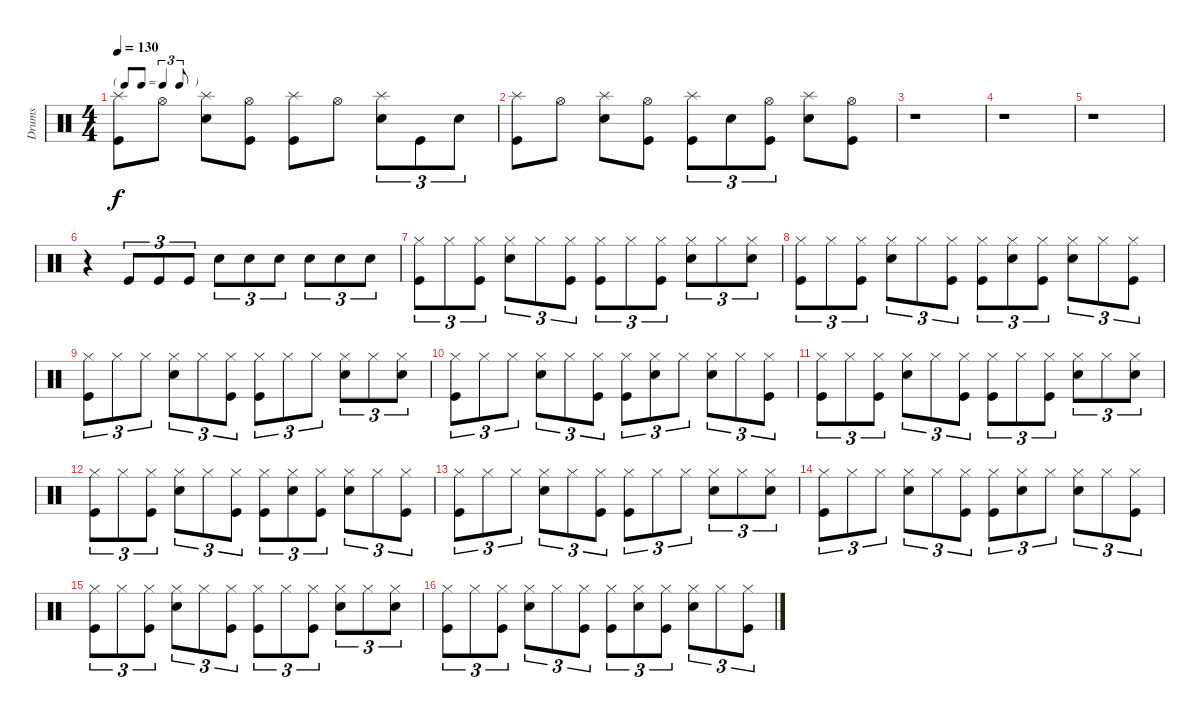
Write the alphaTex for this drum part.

\track ("Drums" "Drums") {instrument percussion}
\staff {score}
\articulation defaults
\ts (4 4)
\tf triplet8th
\tempo 130
\clef neutral
\ks c
("Splash (hit)" "Kick (hit)").8{dy f} "Hi-Hat (open)".8 ("Splash (hit)" "Electric Snare (hit)").8 ("Hi-Hat (open)" "Kick (hit)").8 ("Splash (hit)" "Kick (hit)").8 "Hi-Hat (open)".8 ("Splash (hit)" "Electric Snare (hit)").8{tu (3 2)} "Kick (hit)".8{tu (3 2)} "Electric Snare (hit)".8{tu (3 2)} |
("Splash (hit)" "Kick (hit)").8 "Hi-Hat (open)".8 ("Splash (hit)" "Electric Snare (hit)").8 ("Hi-Hat (open)" "Kick (hit)").8 ("Splash (hit)" "Kick (hit)").8{tu (3 2)} "Electric Snare (hit)".8{tu (3 2)} ("Hi-Hat (open)" "Kick (hit)").8{tu (3 2)} ("Splash (hit)" "Electric Snare (hit)").8 ("Hi-Hat (open)" "Kick (hit)").8 |
r.1 |
r.1 |
r.1 |
r.4 "Kick (hit)".8{tu (3 2)} "Kick (hit)".8{tu (3 2)} "Kick (hit)".8{tu (3 2)} "Electric Snare (hit)".8{tu (3 2)} "Electric Snare (hit)".8{tu (3 2)} "Electric Snare (hit)".8{tu (3 2)} "Electric Snare (hit)".8{tu (3 2)} "Electric Snare (hit)".8{tu (3 2)} "Electric Snare (hit)".8{tu (3 2)} |
("Hi-Hat (closed)" "Kick (hit)").8{tu (3 2)} "Hi-Hat (closed)".8{tu (3 2)} ("Hi-Hat (closed)" "Kick (hit)").8{tu (3 2)} ("Snare (hit) 2" "Hi-Hat (closed)").8{tu (3 2)} "Hi-Hat (closed)".8{tu (3 2)} ("Hi-Hat (closed)" "Kick (hit)").8{tu (3 2)} ("Hi-Hat (closed)" "Kick (hit)").8{tu (3 2)} "Hi-Hat (closed)".8{tu (3 2)} ("Hi-Hat (closed)" "Kick (hit)").8{tu (3 2)} ("Snare (hit) 2" "Hi-Hat (closed)").8{tu (3 2)} "Hi-Hat (closed)".8{tu (3 2)} ("Snare (hit) 2" "Hi-Hat (closed)").8{tu (3 2)} |
("Hi-Hat (closed)" "Kick (hit)").8{tu (3 2)} "Hi-Hat (closed)".8{tu (3 2)} ("Hi-Hat (closed)" "Kick (hit)").8{tu (3 2)} ("Snare (hit) 2" "Hi-Hat (closed)").8{tu (3 2)} "Hi-Hat (closed)".8{tu (3 2)} ("Hi-Hat (closed)" "Kick (hit)").8{tu (3 2)} ("Hi-Hat (closed)" "Kick (hit)").8{tu (3 2)} ("Snare (hit) 2" "Hi-Hat (closed)").8{tu (3 2)} ("Hi-Hat (closed)" "Kick (hit)").8{tu (3 2)} ("Snare (hit) 2" "Hi-Hat (closed)").8{tu (3 2)} "Hi-Hat (closed)".8{tu (3 2)} ("Hi-Hat (closed)" "Kick (hit)").8{tu (3 2)} |
("Hi-Hat (closed)" "Kick (hit)").8{tu (3 2)} "Hi-Hat (closed)".8{tu (3 2)} "Hi-Hat (closed)".8{tu (3 2)} ("Snare (hit) 2" "Hi-Hat (closed)").8{tu (3 2)} "Hi-Hat (closed)".8{tu (3 2)} ("Hi-Hat (closed)" "Kick (hit)").8{tu (3 2)} ("Hi-Hat (closed)" "Kick (hit)").8{tu (3 2)} "Hi-Hat (closed)".8{tu (3 2)} "Hi-Hat (closed)".8{tu (3 2)} ("Snare (hit) 2" "Hi-Hat (closed)").8{tu (3 2)} "Hi-Hat (closed)".8{tu (3 2)} ("Snare (hit) 2" "Hi-Hat (closed)").8{tu (3 2)} |
("Hi-Hat (closed)" "Kick (hit)").8{tu (3 2)} "Hi-Hat (closed)".8{tu (3 2)} "Hi-Hat (closed)".8{tu (3 2)} ("Snare (hit) 2" "Hi-Hat (closed)").8{tu (3 2)} "Hi-Hat (closed)".8{tu (3 2)} ("Hi-Hat (closed)" "Kick (hit)").8{tu (3 2)} ("Hi-Hat (closed)" "Kick (hit)").8{tu (3 2)} ("Snare (hit) 2" "Hi-Hat (closed)").8{tu (3 2)} "Hi-Hat (closed)".8{tu (3 2)} ("Snare (hit) 2" "Hi-Hat (closed)").8{tu (3 2)} "Hi-Hat (closed)".8{tu (3 2)} ("Hi-Hat (closed)" "Kick (hit)").8{tu (3 2)} |
("Hi-Hat (closed)" "Kick (hit)").8{tu (3 2)} "Hi-Hat (closed)".8{tu (3 2)} ("Hi-Hat (closed)" "Kick (hit)").8{tu (3 2)} ("Snare (hit) 2" "Hi-Hat (closed)").8{tu (3 2)} "Hi-Hat (closed)".8{tu (3 2)} ("Hi-Hat (closed)" "Kick (hit)").8{tu (3 2)} ("Hi-Hat (closed)" "Kick (hit)").8{tu (3 2)} "Hi-Hat (closed)".8{tu (3 2)} ("Hi-Hat (closed)" "Kick (hit)").8{tu (3 2)} ("Snare (hit) 2" "Hi-Hat (closed)").8{tu (3 2)} "Hi-Hat (closed)".8{tu (3 2)} ("Snare (hit) 2" "Hi-Hat (closed)").8{tu (3 2)} |
("Hi-Hat (closed)" "Kick (hit)").8{tu (3 2)} "Hi-Hat (closed)".8{tu (3 2)} ("Hi-Hat (closed)" "Kick (hit)").8{tu (3 2)} ("Snare (hit) 2" "Hi-Hat (closed)").8{tu (3 2)} "Hi-Hat (closed)".8{tu (3 2)} ("Hi-Hat (closed)" "Kick (hit)").8{tu (3 2)} ("Hi-Hat (closed)" "Kick (hit)").8{tu (3 2)} ("Snare (hit) 2" "Hi-Hat (closed)").8{tu (3 2)} ("Hi-Hat (closed)" "Kick (hit)").8{tu (3 2)} ("Snare (hit) 2" "Hi-Hat (closed)").8{tu (3 2)} "Hi-Hat (closed)".8{tu (3 2)} ("Hi-Hat (closed)" "Kick (hit)").8{tu (3 2)} |
("Hi-Hat (closed)" "Kick (hit)").8{tu (3 2)} "Hi-Hat (closed)".8{tu (3 2)} "Hi-Hat (closed)".8{tu (3 2)} ("Snare (hit) 2" "Hi-Hat (closed)").8{tu (3 2)} "Hi-Hat (closed)".8{tu (3 2)} ("Hi-Hat (closed)" "Kick (hit)").8{tu (3 2)} ("Hi-Hat (closed)" "Kick (hit)").8{tu (3 2)} "Hi-Hat (closed)".8{tu (3 2)} "Hi-Hat (closed)".8{tu (3 2)} ("Snare (hit) 2" "Hi-Hat (closed)").8{tu (3 2)} "Hi-Hat (closed)".8{tu (3 2)} ("Snare (hit) 2" "Hi-Hat (closed)").8{tu (3 2)} |
("Hi-Hat (closed)" "Kick (hit)").8{tu (3 2)} "Hi-Hat (closed)".8{tu (3 2)} "Hi-Hat (closed)".8{tu (3 2)} ("Snare (hit) 2" "Hi-Hat (closed)").8{tu (3 2)} "Hi-Hat (closed)".8{tu (3 2)} ("Hi-Hat (closed)" "Kick (hit)").8{tu (3 2)} ("Hi-Hat (closed)" "Kick (hit)").8{tu (3 2)} ("Snare (hit) 2" "Hi-Hat (closed)").8{tu (3 2)} "Hi-Hat (closed)".8{tu (3 2)} ("Snare (hit) 2" "Hi-Hat (closed)").8{tu (3 2)} "Hi-Hat (closed)".8{tu (3 2)} ("Hi-Hat (closed)" "Kick (hit)").8{tu (3 2)} |
("Hi-Hat (closed)" "Kick (hit)").8{tu (3 2)} "Hi-Hat (closed)".8{tu (3 2)} ("Hi-Hat (closed)" "Kick (hit)").8{tu (3 2)} ("Snare (hit) 2" "Hi-Hat (closed)").8{tu (3 2)} "Hi-Hat (closed)".8{tu (3 2)} ("Hi-Hat (closed)" "Kick (hit)").8{tu (3 2)} ("Hi-Hat (closed)" "Kick (hit)").8{tu (3 2)} "Hi-Hat (closed)".8{tu (3 2)} ("Hi-Hat (closed)" "Kick (hit)").8{tu (3 2)} ("Snare (hit) 2" "Hi-Hat (closed)").8{tu (3 2)} "Hi-Hat (closed)".8{tu (3 2)} ("Snare (hit) 2" "Hi-Hat (closed)").8{tu (3 2)} |
("Hi-Hat (closed)" "Kick (hit)").8{tu (3 2)} "Hi-Hat (closed)".8{tu (3 2)} ("Hi-Hat (closed)" "Kick (hit)").8{tu (3 2)} ("Snare (hit) 2" "Hi-Hat (closed)").8{tu (3 2)} "Hi-Hat (closed)".8{tu (3 2)} ("Hi-Hat (closed)" "Kick (hit)").8{tu (3 2)} ("Hi-Hat (closed)" "Kick (hit)").8{tu (3 2)} ("Snare (hit) 2" "Hi-Hat (closed)").8{tu (3 2)} ("Hi-Hat (closed)" "Kick (hit)").8{tu (3 2)} ("Snare (hit) 2" "Hi-Hat (closed)").8{tu (3 2)} "Hi-Hat (closed)".8{tu (3 2)} ("Hi-Hat (closed)" "Kick (hit)").8{tu (3 2)}
